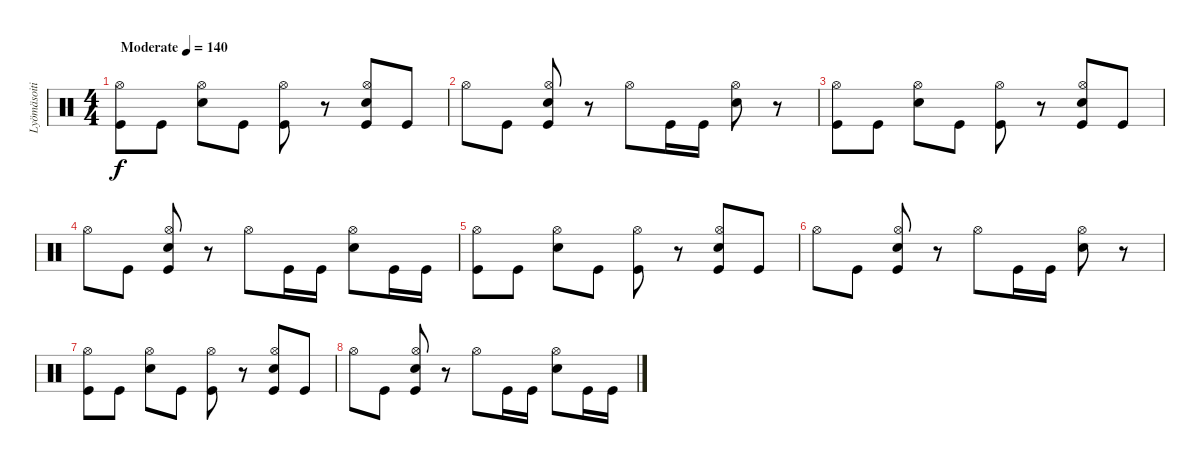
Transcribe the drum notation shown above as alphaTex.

\track ("Lyömäsoitin" "Lyömäsoiti") {instrument percussion}
\staff {score}
\articulation defaults
\ts (4 4)
\tempo (140 "Moderate")
\clef neutral
\ks c
("Kick (hit)" "Hi-Hat (open)").8{dy f} "Kick (hit)".8 ("Snare (hit) 2" "Hi-Hat (open)").8 "Kick (hit)".8 ("Kick (hit)" "Hi-Hat (open)").8 r.8 ("Kick (hit)" "Snare (hit) 2" "Hi-Hat (open)").8 "Kick (hit)".8 |
"Hi-Hat (open)".8 "Kick (hit)".8 ("Kick (hit)" "Snare (hit) 2" "Hi-Hat (open)").8 r.8 "Hi-Hat (open)".8 "Kick (hit)".16 "Kick (hit)".16 ("Snare (hit) 2" "Hi-Hat (open)").8 r.8 |
("Kick (hit)" "Hi-Hat (open)").8 "Kick (hit)".8 ("Snare (hit) 2" "Hi-Hat (open)").8 "Kick (hit)".8 ("Kick (hit)" "Hi-Hat (open)").8 r.8 ("Kick (hit)" "Snare (hit) 2" "Hi-Hat (open)").8 "Kick (hit)".8 |
"Hi-Hat (open)".8 "Kick (hit)".8 ("Kick (hit)" "Snare (hit) 2" "Hi-Hat (open)").8 r.8 "Hi-Hat (open)".8 "Kick (hit)".16 "Kick (hit)".16 ("Snare (hit) 2" "Hi-Hat (open)").8 "Kick (hit)".16 "Kick (hit)".16 |
("Kick (hit)" "Hi-Hat (open)").8 "Kick (hit)".8 ("Snare (hit) 2" "Hi-Hat (open)").8 "Kick (hit)".8 ("Kick (hit)" "Hi-Hat (open)").8 r.8 ("Kick (hit)" "Snare (hit) 2" "Hi-Hat (open)").8 "Kick (hit)".8 |
"Hi-Hat (open)".8 "Kick (hit)".8 ("Kick (hit)" "Snare (hit) 2" "Hi-Hat (open)").8 r.8 "Hi-Hat (open)".8 "Kick (hit)".16 "Kick (hit)".16 ("Snare (hit) 2" "Hi-Hat (open)").8 r.8 |
("Kick (hit)" "Hi-Hat (open)").8 "Kick (hit)".8 ("Snare (hit) 2" "Hi-Hat (open)").8 "Kick (hit)".8 ("Kick (hit)" "Hi-Hat (open)").8 r.8 ("Kick (hit)" "Snare (hit) 2" "Hi-Hat (open)").8 "Kick (hit)".8 |
"Hi-Hat (open)".8 "Kick (hit)".8 ("Kick (hit)" "Snare (hit) 2" "Hi-Hat (open)").8 r.8 "Hi-Hat (open)".8 "Kick (hit)".16 "Kick (hit)".16 ("Snare (hit) 2" "Hi-Hat (open)").8 "Kick (hit)".16 "Kick (hit)".16
